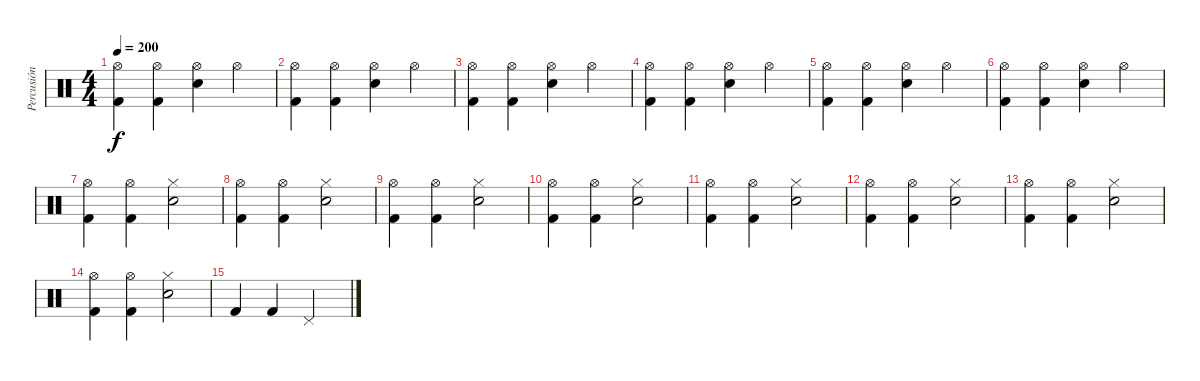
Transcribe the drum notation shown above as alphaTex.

\track ("Percusión" "Percusión") {instrument percussion}
\staff {score}
\articulation defaults
\ts (4 4)
\tempo 200
\clef neutral
\ks c
("Hi-Hat (open)" "Kick (hit) 2").4{dy f} ("Hi-Hat (open)" "Kick (hit) 2").4 ("Hi-Hat (open)" "Electric Snare (hit)").4 "Hi-Hat (open)".4 |
("Hi-Hat (open)" "Kick (hit) 2").4 ("Hi-Hat (open)" "Kick (hit) 2").4 ("Hi-Hat (open)" "Electric Snare (hit)").4 "Hi-Hat (open)".4 |
("Hi-Hat (open)" "Kick (hit) 2").4 ("Hi-Hat (open)" "Kick (hit) 2").4 ("Hi-Hat (open)" "Electric Snare (hit)").4 "Hi-Hat (open)".4 |
("Hi-Hat (open)" "Kick (hit) 2").4 ("Hi-Hat (open)" "Kick (hit) 2").4 ("Hi-Hat (open)" "Electric Snare (hit)").4 "Hi-Hat (open)".4 |
("Hi-Hat (open)" "Kick (hit) 2").4 ("Hi-Hat (open)" "Kick (hit) 2").4 ("Hi-Hat (open)" "Electric Snare (hit)").4 "Hi-Hat (open)".4 |
("Hi-Hat (open)" "Kick (hit) 2").4 ("Hi-Hat (open)" "Kick (hit) 2").4 ("Hi-Hat (open)" "Electric Snare (hit)").4 "Hi-Hat (open)".4 |
("Hi-Hat (open)" "Kick (hit) 2").4 ("Hi-Hat (open)" "Kick (hit) 2").4 ("Hi-Hat (closed)" "Electric Snare (hit)").2 |
("Hi-Hat (open)" "Kick (hit) 2").4 ("Hi-Hat (open)" "Kick (hit) 2").4 ("Hi-Hat (closed)" "Electric Snare (hit)").2 |
("Hi-Hat (open)" "Kick (hit) 2").4 ("Hi-Hat (open)" "Kick (hit) 2").4 ("Hi-Hat (closed)" "Electric Snare (hit)").2 |
("Hi-Hat (open)" "Kick (hit) 2").4 ("Hi-Hat (open)" "Kick (hit) 2").4 ("Hi-Hat (closed)" "Electric Snare (hit)").2 |
("Hi-Hat (open)" "Kick (hit) 2").4 ("Hi-Hat (open)" "Kick (hit) 2").4 ("Hi-Hat (closed)" "Electric Snare (hit)").2 |
("Hi-Hat (open)" "Kick (hit) 2").4 ("Hi-Hat (open)" "Kick (hit) 2").4 ("Hi-Hat (closed)" "Electric Snare (hit)").2 |
("Hi-Hat (open)" "Kick (hit) 2").4 ("Hi-Hat (open)" "Kick (hit) 2").4 ("Hi-Hat (closed)" "Electric Snare (hit)").2 |
("Hi-Hat (open)" "Kick (hit) 2").4 ("Hi-Hat (open)" "Kick (hit) 2").4 ("Hi-Hat (closed)" "Electric Snare (hit)").2 |
"Kick (hit) 2".4 "Kick (hit) 2".4 "Pedal Hi-Hat (hit)".2
